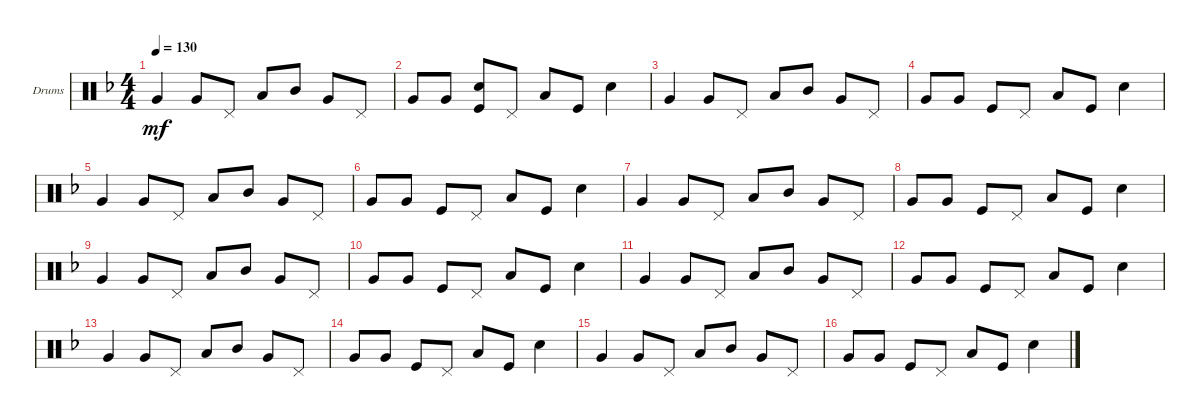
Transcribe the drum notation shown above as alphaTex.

\defaultSystemsLayout 4
\bracketExtendMode groupsimilarinstruments
\firstSystemTrackNameOrientation horizontal
\otherSystemsTrackNameOrientation horizontal
\track ("Drumkit" "Drums") {instrument percussion}
\staff {score}
\articulation defaults
\ts (4 4)
\tempo 130
\clef neutral
\ks f "Very Low Tom (hit)".4{dy mf} "Very Low Tom (hit)".8 "Pedal Hi-Hat (hit)".8 "Low Tom (hit)".8 "Mid Tom (hit)".8 "Very Low Tom (hit)".8 "Pedal Hi-Hat (hit)".8
|
"Very Low Tom (hit)".8 "Very Low Tom (hit)".8 ("Kick (hit)" "Snare (hit) 2").8 "Pedal Hi-Hat (hit)".8 "Low Tom (hit)".8 "Kick (hit)".8 "Snare (hit) 2".4 |
"Very Low Tom (hit)".4 "Very Low Tom (hit)".8 "Pedal Hi-Hat (hit)".8 "Low Tom (hit)".8 "Mid Tom (hit)".8 "Very Low Tom (hit)".8 "Pedal Hi-Hat (hit)".8 |
"Very Low Tom (hit)".8 "Very Low Tom (hit)".8 "Kick (hit)".8 "Pedal Hi-Hat (hit)".8 "Low Tom (hit)".8 "Kick (hit)".8 "Snare (hit) 2".4 |
"Very Low Tom (hit)".4 "Very Low Tom (hit)".8 "Pedal Hi-Hat (hit)".8 "Low Tom (hit)".8 "Mid Tom (hit)".8 "Very Low Tom (hit)".8 "Pedal Hi-Hat (hit)".8 |
"Very Low Tom (hit)".8 "Very Low Tom (hit)".8 "Kick (hit)".8 "Pedal Hi-Hat (hit)".8 "Low Tom (hit)".8 "Kick (hit)".8 "Snare (hit) 2".4 |
"Very Low Tom (hit)".4 "Very Low Tom (hit)".8 "Pedal Hi-Hat (hit)".8 "Low Tom (hit)".8 "Mid Tom (hit)".8 "Very Low Tom (hit)".8 "Pedal Hi-Hat (hit)".8 |
"Very Low Tom (hit)".8 "Very Low Tom (hit)".8 "Kick (hit)".8 "Pedal Hi-Hat (hit)".8 "Low Tom (hit)".8 "Kick (hit)".8 "Snare (hit) 2".4 |
"Very Low Tom (hit)".4 "Very Low Tom (hit)".8 "Pedal Hi-Hat (hit)".8 "Low Tom (hit)".8 "Mid Tom (hit)".8 "Very Low Tom (hit)".8 "Pedal Hi-Hat (hit)".8 |
"Very Low Tom (hit)".8 "Very Low Tom (hit)".8 "Kick (hit)".8 "Pedal Hi-Hat (hit)".8 "Low Tom (hit)".8 "Kick (hit)".8 "Snare (hit) 2".4 |
"Very Low Tom (hit)".4 "Very Low Tom (hit)".8 "Pedal Hi-Hat (hit)".8 "Low Tom (hit)".8 "Mid Tom (hit)".8 "Very Low Tom (hit)".8 "Pedal Hi-Hat (hit)".8 |
"Very Low Tom (hit)".8 "Very Low Tom (hit)".8 "Kick (hit)".8 "Pedal Hi-Hat (hit)".8 "Low Tom (hit)".8 "Kick (hit)".8 "Snare (hit) 2".4 |
"Very Low Tom (hit)".4 "Very Low Tom (hit)".8 "Pedal Hi-Hat (hit)".8 "Low Tom (hit)".8 "Mid Tom (hit)".8 "Very Low Tom (hit)".8 "Pedal Hi-Hat (hit)".8 |
"Very Low Tom (hit)".8 "Very Low Tom (hit)".8 "Kick (hit)".8 "Pedal Hi-Hat (hit)".8 "Low Tom (hit)".8 "Kick (hit)".8 "Snare (hit) 2".4 |
"Very Low Tom (hit)".4 "Very Low Tom (hit)".8 "Pedal Hi-Hat (hit)".8 "Low Tom (hit)".8 "Mid Tom (hit)".8 "Very Low Tom (hit)".8 "Pedal Hi-Hat (hit)".8 |
"Very Low Tom (hit)".8 "Very Low Tom (hit)".8 "Kick (hit)".8 "Pedal Hi-Hat (hit)".8 "Low Tom (hit)".8 "Kick (hit)".8 "Snare (hit) 2".4
